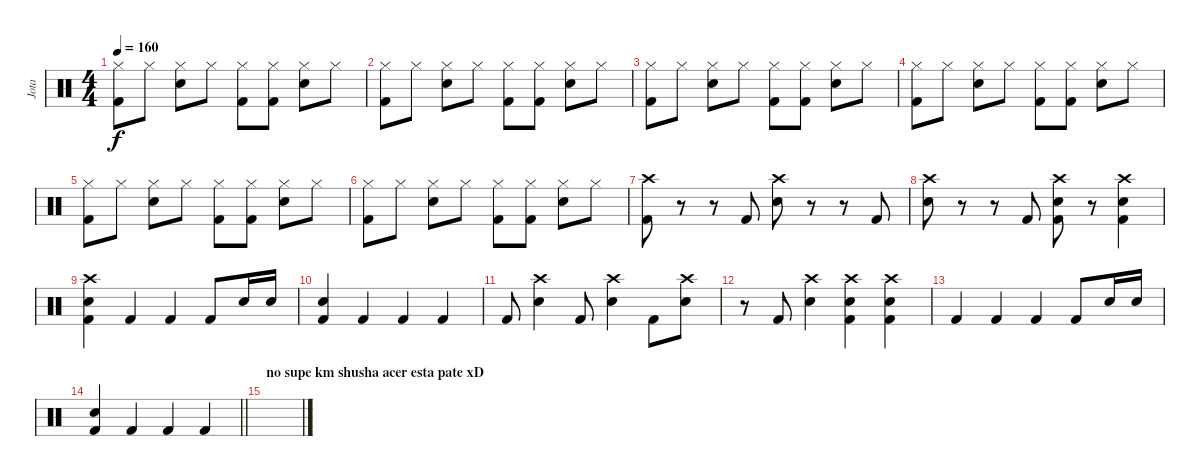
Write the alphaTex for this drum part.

\track ("Jota" "Jota") {instrument percussion}
\staff {score}
\articulation defaults
\ts (4 4)
\tempo 160
\clef neutral
\ks c
("Hi-Hat (closed)" "Kick (hit) 2").8{dy f} "Hi-Hat (closed)".8 ("Hi-Hat (closed)" "Electric Snare (hit)").8 "Hi-Hat (closed)".8 ("Hi-Hat (closed)" "Kick (hit) 2").8 ("Hi-Hat (closed)" "Kick (hit) 2").8 ("Hi-Hat (closed)" "Electric Snare (hit)").8 "Hi-Hat (closed)".8 |
("Hi-Hat (closed)" "Kick (hit) 2").8 "Hi-Hat (closed)".8 ("Hi-Hat (closed)" "Electric Snare (hit)").8 "Hi-Hat (closed)".8 ("Hi-Hat (closed)" "Kick (hit) 2").8 ("Hi-Hat (closed)" "Kick (hit) 2").8 ("Hi-Hat (closed)" "Electric Snare (hit)").8 "Hi-Hat (closed)".8 |
("Hi-Hat (closed)" "Kick (hit) 2").8 "Hi-Hat (closed)".8 ("Hi-Hat (closed)" "Electric Snare (hit)").8 "Hi-Hat (closed)".8 ("Hi-Hat (closed)" "Kick (hit) 2").8 ("Hi-Hat (closed)" "Kick (hit) 2").8 ("Hi-Hat (closed)" "Electric Snare (hit)").8 "Hi-Hat (closed)".8 |
("Hi-Hat (closed)" "Kick (hit) 2").8 "Hi-Hat (closed)".8 ("Hi-Hat (closed)" "Electric Snare (hit)").8 "Hi-Hat (closed)".8 ("Hi-Hat (closed)" "Kick (hit) 2").8 ("Hi-Hat (closed)" "Kick (hit) 2").8 ("Hi-Hat (closed)" "Electric Snare (hit)").8 "Hi-Hat (closed)".8 |
("Hi-Hat (closed)" "Kick (hit) 2").8 "Hi-Hat (closed)".8 ("Hi-Hat (closed)" "Electric Snare (hit)").8 "Hi-Hat (closed)".8 ("Hi-Hat (closed)" "Kick (hit) 2").8 ("Hi-Hat (closed)" "Kick (hit) 2").8 ("Hi-Hat (closed)" "Electric Snare (hit)").8 "Hi-Hat (closed)".8 |
("Hi-Hat (closed)" "Kick (hit) 2").8 "Hi-Hat (closed)".8 ("Hi-Hat (closed)" "Electric Snare (hit)").8 "Hi-Hat (closed)".8 ("Hi-Hat (closed)" "Kick (hit) 2").8 ("Hi-Hat (closed)" "Kick (hit) 2").8 ("Hi-Hat (closed)" "Electric Snare (hit)").8 "Hi-Hat (closed)".8 |
("Crash high (hit)" "Kick (hit) 2").8 r.8 r.8 "Kick (hit) 2".8 ("Crash high (hit)" "Electric Snare (hit)").8 r.8 r.8 "Kick (hit) 2".8 |
("Crash high (hit)" "Electric Snare (hit)").8 r.8 r.8 "Kick (hit) 2".8 ("Crash high (hit)" "Electric Snare (hit)" "Kick (hit) 2").8 r.8 ("Crash high (hit)" "Electric Snare (hit)" "Kick (hit) 2").4 |
("Crash high (hit)" "Electric Snare (hit)" "Kick (hit) 2").4 "Kick (hit) 2".4 "Kick (hit) 2".4 "Kick (hit) 2".8 "Electric Snare (hit)".16 "Electric Snare (hit)".16 |
("Electric Snare (hit)" "Kick (hit) 2").4 "Kick (hit) 2".4 "Kick (hit) 2".4 "Kick (hit) 2".4 |
"Kick (hit) 2".8 ("Crash high (hit)" "Electric Snare (hit)").4 "Kick (hit) 2".8 ("Crash high (hit)" "Electric Snare (hit)").4 "Kick (hit) 2".8 ("Crash high (hit)" "Electric Snare (hit)").8 |
r.8 "Kick (hit) 2".8 ("Crash high (hit)" "Electric Snare (hit)").4 ("Crash high (hit)" "Electric Snare (hit)" "Kick (hit) 2").4 ("Crash high (hit)" "Electric Snare (hit)" "Kick (hit) 2").4 |
"Kick (hit) 2".4 "Kick (hit) 2".4 "Kick (hit) 2".4 "Kick (hit) 2".8 "Electric Snare (hit)".16 "Electric Snare (hit)".16 |
\barLineRight lightlight
("Electric Snare (hit)" "Kick (hit) 2").4 "Kick (hit) 2".4 "Kick (hit) 2".4 "Kick (hit) 2".4 |
\section ("" "no supe km shusha acer esta pate xD")
